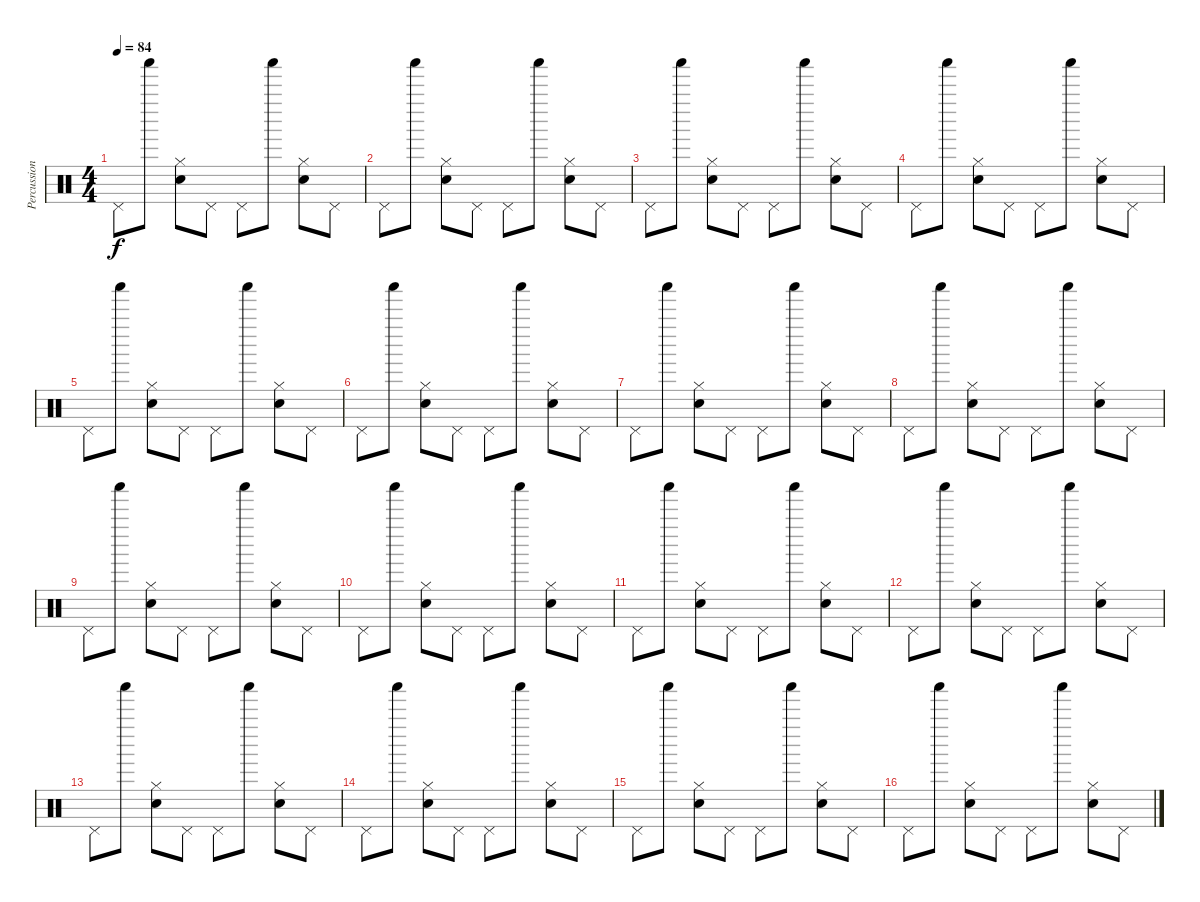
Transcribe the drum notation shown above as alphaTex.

\track ("Percussion" "Percussion") {instrument percussion}
\staff {score}
\articulation defaults
\ts (4 4)
\tempo 84
\clef neutral
\ks c "Pedal Hi-Hat (hit)".8{dy f} "Shaker (hit)".8
("Hi-Hat (closed)" "Electric Snare (hit)").8 "Pedal Hi-Hat (hit)".8 "Pedal Hi-Hat (hit)".8 "Shaker (hit)".8 ("Hi-Hat (closed)" "Electric Snare (hit)").8 "Pedal Hi-Hat (hit)".8 |
"Pedal Hi-Hat (hit)".8 "Shaker (hit)".8 ("Hi-Hat (closed)" "Electric Snare (hit)").8 "Pedal Hi-Hat (hit)".8 "Pedal Hi-Hat (hit)".8 "Shaker (hit)".8 ("Hi-Hat (closed)" "Electric Snare (hit)").8 "Pedal Hi-Hat (hit)".8 |
"Pedal Hi-Hat (hit)".8 "Shaker (hit)".8 ("Hi-Hat (closed)" "Electric Snare (hit)").8 "Pedal Hi-Hat (hit)".8 "Pedal Hi-Hat (hit)".8 "Shaker (hit)".8 ("Hi-Hat (closed)" "Electric Snare (hit)").8 "Pedal Hi-Hat (hit)".8 |
"Pedal Hi-Hat (hit)".8 "Shaker (hit)".8 ("Hi-Hat (closed)" "Electric Snare (hit)").8 "Pedal Hi-Hat (hit)".8 "Pedal Hi-Hat (hit)".8 "Shaker (hit)".8 ("Hi-Hat (closed)" "Electric Snare (hit)").8 "Pedal Hi-Hat (hit)".8 |
"Pedal Hi-Hat (hit)".8 "Shaker (hit)".8 ("Hi-Hat (closed)" "Electric Snare (hit)").8 "Pedal Hi-Hat (hit)".8 "Pedal Hi-Hat (hit)".8 "Shaker (hit)".8 ("Hi-Hat (closed)" "Electric Snare (hit)").8 "Pedal Hi-Hat (hit)".8 |
"Pedal Hi-Hat (hit)".8 "Shaker (hit)".8 ("Hi-Hat (closed)" "Electric Snare (hit)").8 "Pedal Hi-Hat (hit)".8 "Pedal Hi-Hat (hit)".8 "Shaker (hit)".8 ("Hi-Hat (closed)" "Electric Snare (hit)").8 "Pedal Hi-Hat (hit)".8 |
"Pedal Hi-Hat (hit)".8 "Shaker (hit)".8 ("Hi-Hat (closed)" "Electric Snare (hit)").8 "Pedal Hi-Hat (hit)".8 "Pedal Hi-Hat (hit)".8 "Shaker (hit)".8 ("Hi-Hat (closed)" "Electric Snare (hit)").8 "Pedal Hi-Hat (hit)".8 |
"Pedal Hi-Hat (hit)".8 "Shaker (hit)".8 ("Hi-Hat (closed)" "Electric Snare (hit)").8 "Pedal Hi-Hat (hit)".8 "Pedal Hi-Hat (hit)".8 "Shaker (hit)".8 ("Hi-Hat (closed)" "Electric Snare (hit)").8 "Pedal Hi-Hat (hit)".8 |
"Pedal Hi-Hat (hit)".8 "Shaker (hit)".8 ("Hi-Hat (closed)" "Electric Snare (hit)").8 "Pedal Hi-Hat (hit)".8 "Pedal Hi-Hat (hit)".8 "Shaker (hit)".8 ("Hi-Hat (closed)" "Electric Snare (hit)").8 "Pedal Hi-Hat (hit)".8 |
"Pedal Hi-Hat (hit)".8 "Shaker (hit)".8 ("Hi-Hat (closed)" "Electric Snare (hit)").8 "Pedal Hi-Hat (hit)".8 "Pedal Hi-Hat (hit)".8 "Shaker (hit)".8 ("Hi-Hat (closed)" "Electric Snare (hit)").8 "Pedal Hi-Hat (hit)".8 |
"Pedal Hi-Hat (hit)".8 "Shaker (hit)".8 ("Hi-Hat (closed)" "Electric Snare (hit)").8 "Pedal Hi-Hat (hit)".8 "Pedal Hi-Hat (hit)".8 "Shaker (hit)".8 ("Hi-Hat (closed)" "Electric Snare (hit)").8 "Pedal Hi-Hat (hit)".8 |
"Pedal Hi-Hat (hit)".8 "Shaker (hit)".8 ("Hi-Hat (closed)" "Electric Snare (hit)").8 "Pedal Hi-Hat (hit)".8 "Pedal Hi-Hat (hit)".8 "Shaker (hit)".8 ("Hi-Hat (closed)" "Electric Snare (hit)").8 "Pedal Hi-Hat (hit)".8 |
"Pedal Hi-Hat (hit)".8 "Shaker (hit)".8 ("Hi-Hat (closed)" "Electric Snare (hit)").8 "Pedal Hi-Hat (hit)".8 "Pedal Hi-Hat (hit)".8 "Shaker (hit)".8 ("Hi-Hat (closed)" "Electric Snare (hit)").8 "Pedal Hi-Hat (hit)".8 |
"Pedal Hi-Hat (hit)".8 "Shaker (hit)".8 ("Hi-Hat (closed)" "Electric Snare (hit)").8 "Pedal Hi-Hat (hit)".8 "Pedal Hi-Hat (hit)".8 "Shaker (hit)".8 ("Hi-Hat (closed)" "Electric Snare (hit)").8 "Pedal Hi-Hat (hit)".8 |
"Pedal Hi-Hat (hit)".8 "Shaker (hit)".8 ("Hi-Hat (closed)" "Electric Snare (hit)").8 "Pedal Hi-Hat (hit)".8 "Pedal Hi-Hat (hit)".8 "Shaker (hit)".8 ("Hi-Hat (closed)" "Electric Snare (hit)").8 "Pedal Hi-Hat (hit)".8 |
"Pedal Hi-Hat (hit)".8 "Shaker (hit)".8 ("Hi-Hat (closed)" "Electric Snare (hit)").8 "Pedal Hi-Hat (hit)".8 "Pedal Hi-Hat (hit)".8 "Shaker (hit)".8 ("Hi-Hat (closed)" "Electric Snare (hit)").8 "Pedal Hi-Hat (hit)".8
